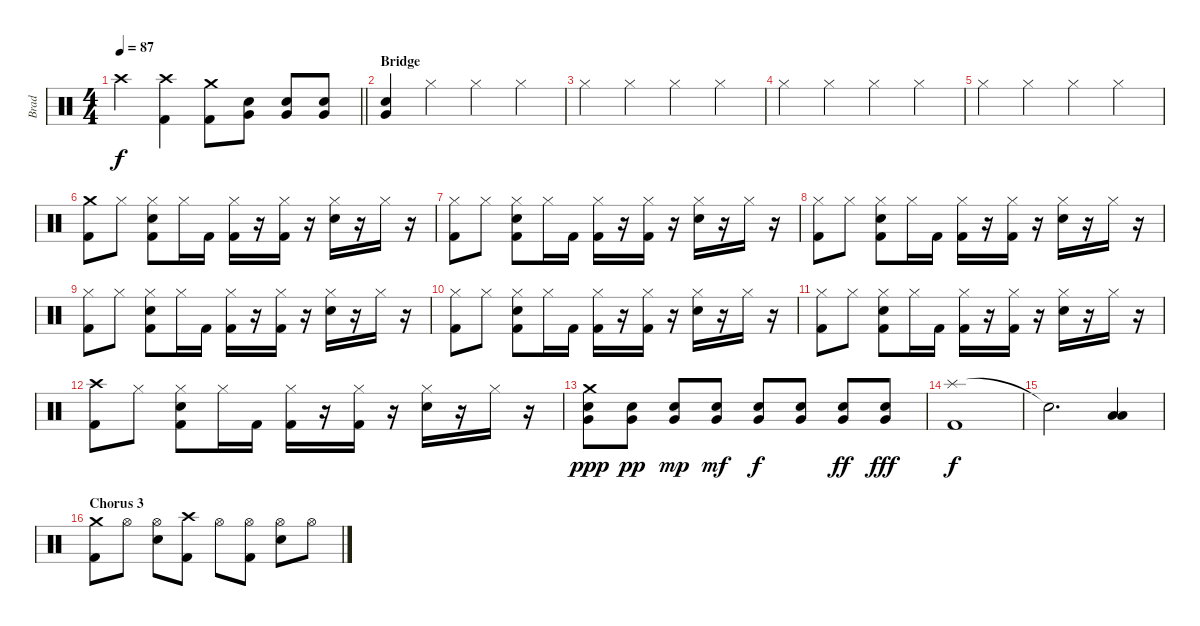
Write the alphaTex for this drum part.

\track ("Brad" "Brad") {instrument percussion}
\staff {score}
\articulation defaults
\ts (4 4)
\tempo 87
\clef neutral
\barLineRight lightlight
\ks c "Crash high (hit)".4{dy f}
("Crash high (hit)" "Kick (hit) 2").4 ("Crash medium (hit)" "Kick (hit) 2").8 ("Very Low Tom (hit)" "Electric Snare (hit)").8 ("Very Low Tom (hit)" "Electric Snare (hit)").8 ("Very Low Tom (hit)" "Electric Snare (hit)").8 |
\section ("" "Bridge")
("Very Low Tom (hit)" "Electric Snare (hit)").4 "Hi-Hat (closed)".4 "Hi-Hat (closed)".4 "Hi-Hat (closed)".4 |
"Hi-Hat (closed)".4 "Hi-Hat (closed)".4 "Hi-Hat (closed)".4 "Hi-Hat (closed)".4 |
"Hi-Hat (closed)".4 "Hi-Hat (closed)".4 "Hi-Hat (closed)".4 "Hi-Hat (closed)".4 |
"Hi-Hat (closed)".4 "Hi-Hat (closed)".4 "Hi-Hat (closed)".4 "Hi-Hat (closed)".4 |
("Crash medium (hit)" "Kick (hit) 2").8 "Hi-Hat (closed)".8 ("Hi-Hat (closed)" "Electric Snare (hit)" "Kick (hit) 2").8 "Hi-Hat (closed)".16 "Kick (hit) 2".16 ("Hi-Hat (closed)" "Kick (hit) 2").16 r.16 ("Hi-Hat (closed)" "Kick (hit) 2").16 r.16 ("Hi-Hat (closed)" "Electric Snare (hit)").16 r.16 "Hi-Hat (closed)".16 r.16 |
("Hi-Hat (closed)" "Kick (hit) 2").8 "Hi-Hat (closed)".8 ("Hi-Hat (closed)" "Electric Snare (hit)" "Kick (hit) 2").8 "Hi-Hat (closed)".16 "Kick (hit) 2".16 ("Hi-Hat (closed)" "Kick (hit) 2").16 r.16 ("Hi-Hat (closed)" "Kick (hit) 2").16 r.16 ("Hi-Hat (closed)" "Electric Snare (hit)").16 r.16 "Hi-Hat (closed)".16 r.16 |
("Hi-Hat (closed)" "Kick (hit) 2").8 "Hi-Hat (closed)".8 ("Hi-Hat (closed)" "Electric Snare (hit)" "Kick (hit) 2").8 "Hi-Hat (closed)".16 "Kick (hit) 2".16 ("Hi-Hat (closed)" "Kick (hit) 2").16 r.16 ("Hi-Hat (closed)" "Kick (hit) 2").16 r.16 ("Hi-Hat (closed)" "Electric Snare (hit)").16 r.16 "Hi-Hat (closed)".16 r.16 |
("Hi-Hat (closed)" "Kick (hit) 2").8 "Hi-Hat (closed)".8 ("Hi-Hat (closed)" "Electric Snare (hit)" "Kick (hit) 2").8 "Hi-Hat (closed)".16 "Kick (hit) 2".16 ("Hi-Hat (closed)" "Kick (hit) 2").16 r.16 ("Hi-Hat (closed)" "Kick (hit) 2").16 r.16 ("Hi-Hat (closed)" "Electric Snare (hit)").16 r.16 "Hi-Hat (closed)".16 r.16 |
("Hi-Hat (closed)" "Kick (hit) 2").8 "Hi-Hat (closed)".8 ("Hi-Hat (closed)" "Electric Snare (hit)" "Kick (hit) 2").8 "Hi-Hat (closed)".16 "Kick (hit) 2".16 ("Hi-Hat (closed)" "Kick (hit) 2").16 r.16 ("Hi-Hat (closed)" "Kick (hit) 2").16 r.16 ("Hi-Hat (closed)" "Electric Snare (hit)").16 r.16 "Hi-Hat (closed)".16 r.16 |
("Hi-Hat (closed)" "Kick (hit) 2").8 "Hi-Hat (closed)".8 ("Hi-Hat (closed)" "Electric Snare (hit)" "Kick (hit) 2").8 "Hi-Hat (closed)".16 "Kick (hit) 2".16 ("Hi-Hat (closed)" "Kick (hit) 2").16 r.16 ("Hi-Hat (closed)" "Kick (hit) 2").16 r.16 ("Hi-Hat (closed)" "Electric Snare (hit)").16 r.16 "Hi-Hat (closed)".16 r.16 |
("Crash high (hit)" "Kick (hit) 2").8 "Hi-Hat (closed)".8 ("Hi-Hat (closed)" "Electric Snare (hit)" "Kick (hit) 2").8 "Hi-Hat (closed)".16 "Kick (hit) 2".16 ("Hi-Hat (closed)" "Kick (hit) 2").16 r.16 ("Hi-Hat (closed)" "Kick (hit) 2").16 r.16 ("Hi-Hat (closed)" "Electric Snare (hit)").16 r.16 "Hi-Hat (closed)".16 r.16 |
("Crash medium (hit)" "Very Low Tom (hit)" "Electric Snare (hit)").8{dy ppp} ("Very Low Tom (hit)" "Electric Snare (hit)").8{dy pp} ("Very Low Tom (hit)" "Electric Snare (hit)").8{dy mp} ("Very Low Tom (hit)" "Electric Snare (hit)").8{dy mf} ("Very Low Tom (hit)" "Electric Snare (hit)").8{dy f} ("Very Low Tom (hit)" "Electric Snare (hit)").8 ("Very Low Tom (hit)" "Electric Snare (hit)").8{dy ff} ("Very Low Tom (hit)" "Electric Snare (hit)").8{dy fff} |
("Splash (hit)" "Kick (hit) 2").1{dy f} |
"Snare (hit)"{t}.2{d} ("Low Tom (hit)" "Low Floor Tom (hit)").4 |
\section ("" "Chorus 3")
("Crash medium (hit)" "Kick (hit) 2").8 "Hi-Hat (open)".8 ("Hi-Hat (open)" "Electric Snare (hit)").8 ("Crash high (hit)" "Kick (hit) 2").8 "Hi-Hat (open)".8 ("Hi-Hat (open)" "Kick (hit) 2").8 ("Hi-Hat (open)" "Electric Snare (hit)").8 "Hi-Hat (open)".8
